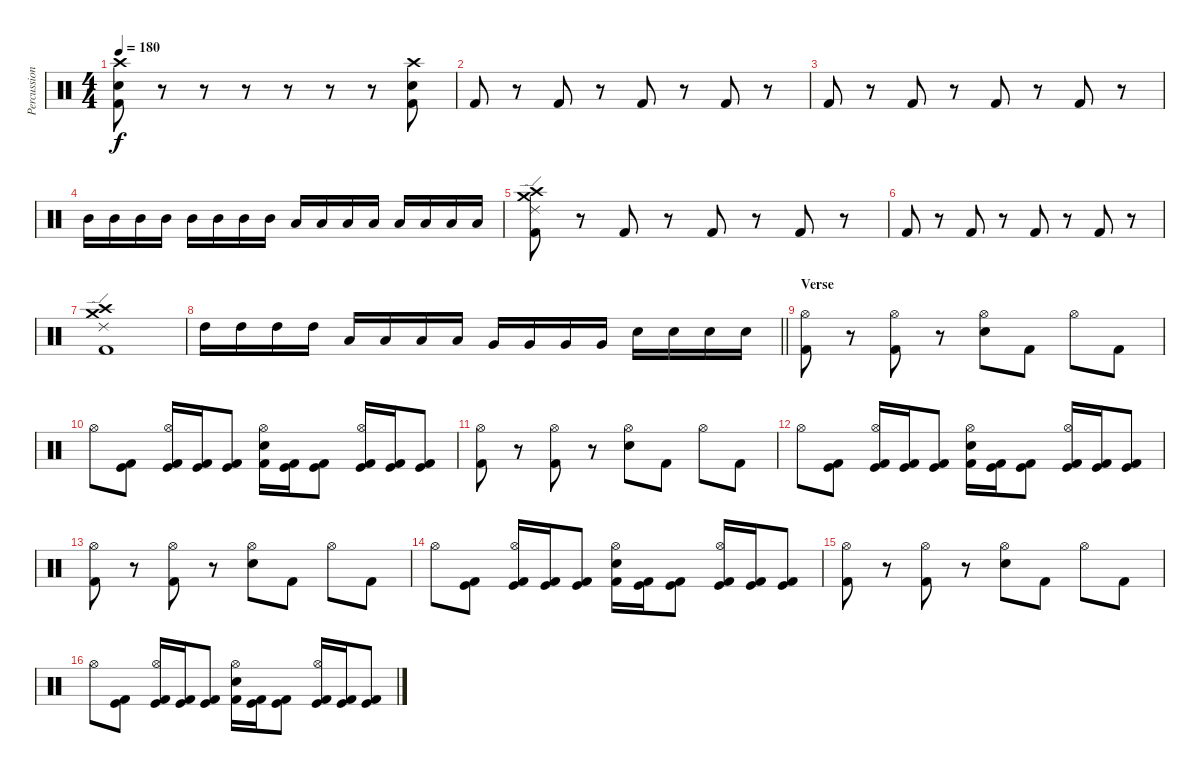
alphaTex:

\track ("Percussion" "Percussion") {instrument percussion}
\staff {score}
\articulation defaults
\ts (4 4)
\tempo 180
\clef neutral
\ks c
("Crash high (hit)" "Electric Snare (hit)" "Kick (hit) 2").8{dy f} r.8 r.8 r.8 r.8 r.8 r.8 ("Crash high (hit)" "Electric Snare (hit)" "Kick (hit) 2").8 |
"Kick (hit) 2".8 r.8 "Kick (hit) 2".8 r.8 "Kick (hit) 2".8 r.8 "Kick (hit) 2".8 r.8 |
"Kick (hit) 2".8 r.8 "Kick (hit) 2".8 r.8 "Kick (hit) 2".8 r.8 "Kick (hit) 2".8 r.8 |
"Mid Tom (hit)".16 "Mid Tom (hit)".16 "Mid Tom (hit)".16 "Mid Tom (hit)".16 "Mid Tom (hit)".16 "Mid Tom (hit)".16 "Mid Tom (hit)".16 "Mid Tom (hit)".16 "Low Floor Tom (hit)".16 "Low Floor Tom (hit)".16 "Low Floor Tom (hit)".16 "Low Floor Tom (hit)".16 "Low Floor Tom (hit)".16 "Low Floor Tom (hit)".16 "Low Floor Tom (hit)".16 "Low Floor Tom (hit)".16 |
("Ride (edge) 2" "Crash medium (hit)" "Crash high (hit)" "Kick (hit) 2").8 r.8 "Kick (hit) 2".8 r.8 "Kick (hit) 2".8 r.8 "Kick (hit) 2".8 r.8 |
"Kick (hit) 2".8 r.8 "Kick (hit) 2".8 r.8 "Kick (hit) 2".8 r.8 "Kick (hit) 2".8 r.8 |
("Ride (edge) 2" "Crash medium (hit)" "Crash high (hit)" "Kick (hit) 2").1 |
\barLineRight lightlight "High Tom (hit)".16 "High Tom (hit)".16 "High Tom (hit)".16 "High Tom (hit)".16 "Low Tom (hit)".16 "Low Tom (hit)".16 "Low Tom (hit)".16 "Low Tom (hit)".16 "Very Low Tom (hit)".16 "Very Low Tom (hit)".16 "Very Low Tom (hit)".16 "Very Low Tom (hit)".16 "Snare (hit) 2".16 "Snare (hit) 2".16 "Snare (hit) 2".16 "Snare (hit) 2".16
|
\section ("" "Verse")
("Hi-Hat (open)" "Kick (hit) 2").8 r.8 ("Hi-Hat (open)" "Kick (hit) 2").8 r.8 ("Hi-Hat (open)" "Electric Snare (hit)").8 "Kick (hit) 2".8 "Hi-Hat (open)".8 "Kick (hit) 2".8 |
"Hi-Hat (open)".8 ("Kick (hit)" "Kick (hit) 2").8 ("Hi-Hat (open)" "Kick (hit)" "Kick (hit) 2").16 ("Kick (hit)" "Kick (hit) 2").16 ("Kick (hit)" "Kick (hit) 2").8 ("Hi-Hat (open)" "Electric Snare (hit)" "Kick (hit) 2").16 ("Kick (hit)" "Kick (hit) 2").16 ("Kick (hit)" "Kick (hit) 2").8 ("Hi-Hat (open)" "Kick (hit)" "Kick (hit) 2").16 ("Kick (hit)" "Kick (hit) 2").16 ("Kick (hit)" "Kick (hit) 2").8 |
("Hi-Hat (open)" "Kick (hit) 2").8 r.8 ("Hi-Hat (open)" "Kick (hit) 2").8 r.8 ("Hi-Hat (open)" "Electric Snare (hit)").8 "Kick (hit) 2".8 "Hi-Hat (open)".8 "Kick (hit) 2".8 |
"Hi-Hat (open)".8 ("Kick (hit)" "Kick (hit) 2").8 ("Hi-Hat (open)" "Kick (hit)" "Kick (hit) 2").16 ("Kick (hit)" "Kick (hit) 2").16 ("Kick (hit)" "Kick (hit) 2").8 ("Hi-Hat (open)" "Electric Snare (hit)" "Kick (hit) 2").16 ("Kick (hit)" "Kick (hit) 2").16 ("Kick (hit)" "Kick (hit) 2").8 ("Hi-Hat (open)" "Kick (hit)" "Kick (hit) 2").16 ("Kick (hit)" "Kick (hit) 2").16 ("Kick (hit)" "Kick (hit) 2").8 |
("Hi-Hat (open)" "Kick (hit) 2").8 r.8 ("Hi-Hat (open)" "Kick (hit) 2").8 r.8 ("Hi-Hat (open)" "Electric Snare (hit)").8 "Kick (hit) 2".8 "Hi-Hat (open)".8 "Kick (hit) 2".8 |
"Hi-Hat (open)".8 ("Kick (hit)" "Kick (hit) 2").8 ("Hi-Hat (open)" "Kick (hit)" "Kick (hit) 2").16 ("Kick (hit)" "Kick (hit) 2").16 ("Kick (hit)" "Kick (hit) 2").8 ("Hi-Hat (open)" "Electric Snare (hit)" "Kick (hit) 2").16 ("Kick (hit)" "Kick (hit) 2").16 ("Kick (hit)" "Kick (hit) 2").8 ("Hi-Hat (open)" "Kick (hit)" "Kick (hit) 2").16 ("Kick (hit)" "Kick (hit) 2").16 ("Kick (hit)" "Kick (hit) 2").8 |
("Hi-Hat (open)" "Kick (hit) 2").8 r.8 ("Hi-Hat (open)" "Kick (hit) 2").8 r.8 ("Hi-Hat (open)" "Electric Snare (hit)").8 "Kick (hit) 2".8 "Hi-Hat (open)".8 "Kick (hit) 2".8 |
"Hi-Hat (open)".8 ("Kick (hit)" "Kick (hit) 2").8 ("Hi-Hat (open)" "Kick (hit)" "Kick (hit) 2").16 ("Kick (hit)" "Kick (hit) 2").16 ("Kick (hit)" "Kick (hit) 2").8 ("Hi-Hat (open)" "Electric Snare (hit)" "Kick (hit) 2").16 ("Kick (hit)" "Kick (hit) 2").16 ("Kick (hit)" "Kick (hit) 2").8 ("Hi-Hat (open)" "Kick (hit)" "Kick (hit) 2").16 ("Kick (hit)" "Kick (hit) 2").16 ("Kick (hit)" "Kick (hit) 2").8
